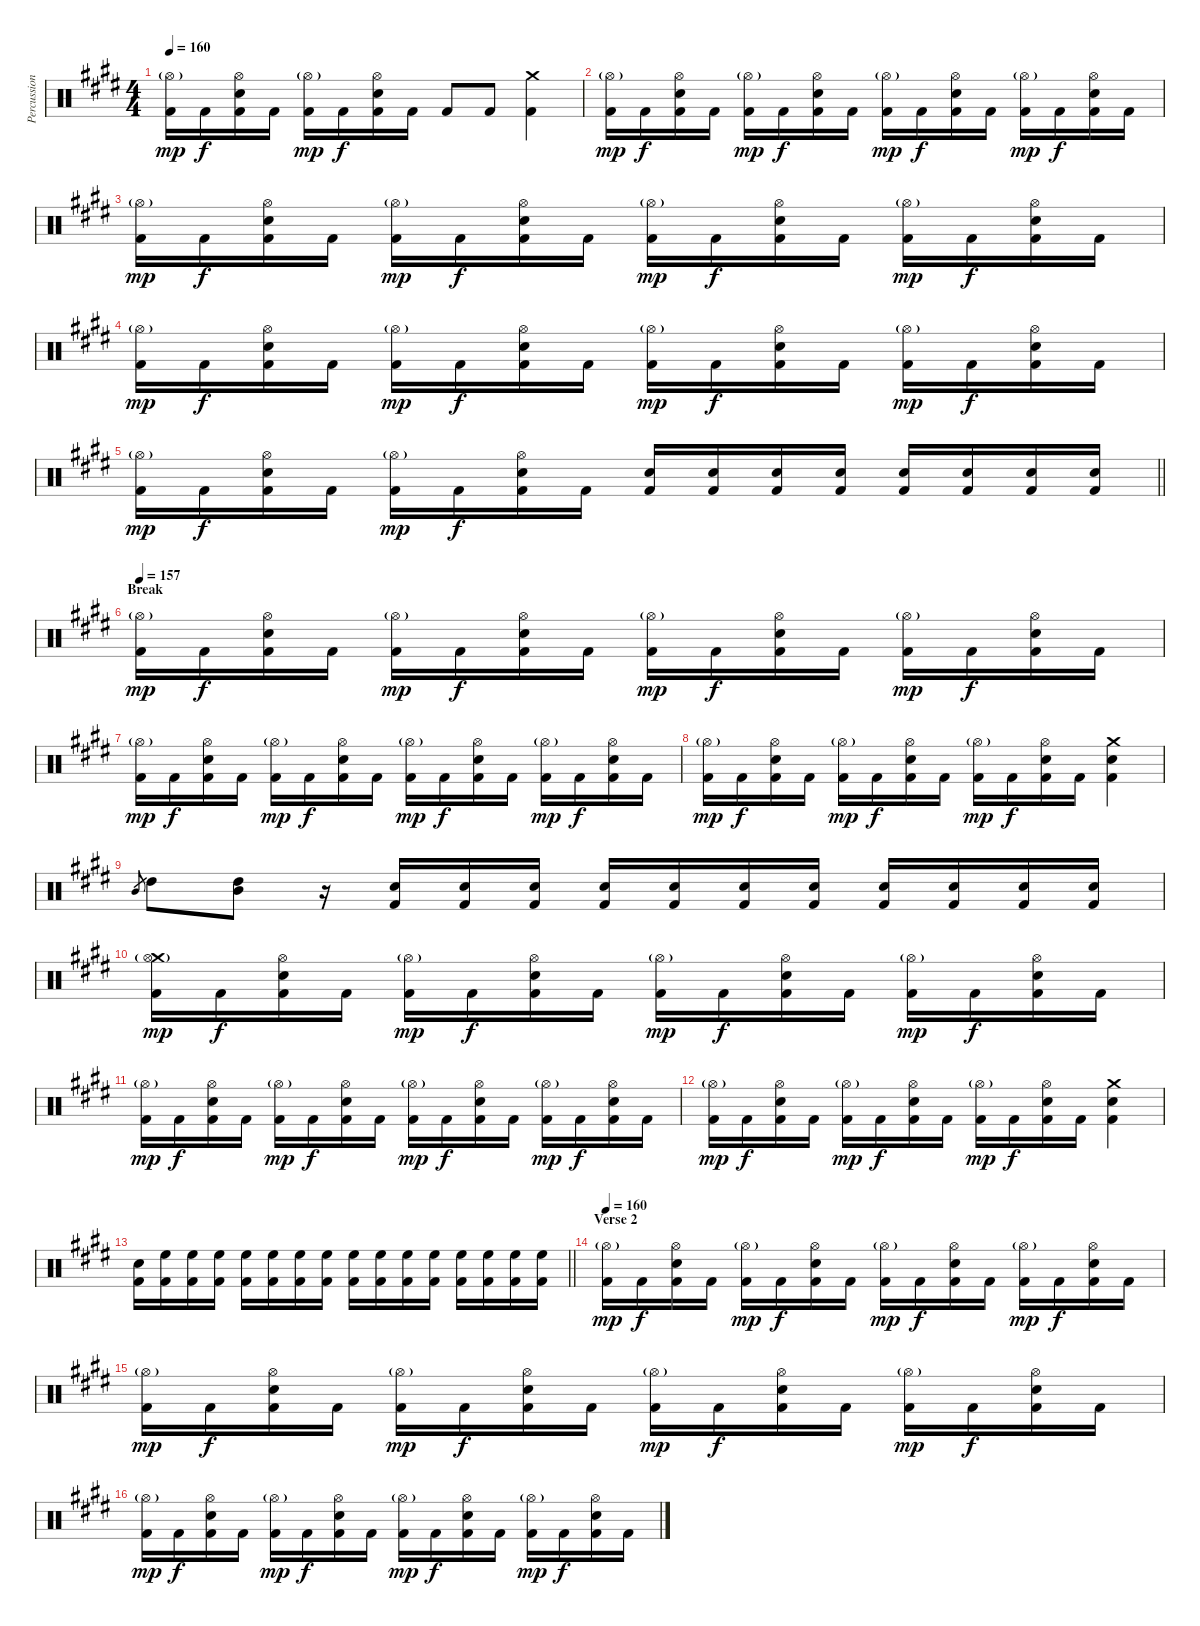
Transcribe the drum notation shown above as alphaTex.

\track ("Percussion (Thomen Stauch)" "Percussion") {instrument percussion}
\staff {score}
\articulation defaults
\ts (4 4)
\tempo 160
\clef neutral
\ks c#minor
("Hi-Hat (open)"{g} "Kick (hit) 2").16{dy mp} "Kick (hit) 2".16{dy f} ("Hi-Hat (open)" "Snare (hit) 2" "Kick (hit) 2").16 "Kick (hit) 2".16 ("Hi-Hat (open)"{g} "Kick (hit) 2").16{dy mp} "Kick (hit) 2".16{dy f} ("Hi-Hat (open)" "Snare (hit) 2" "Kick (hit) 2").16 "Kick (hit) 2".16 "Kick (hit) 2".8 "Kick (hit) 2".8 ("Crash medium (hit)" "Kick (hit) 2").4 |
("Hi-Hat (open)"{g} "Kick (hit) 2").16{dy mp} "Kick (hit) 2".16{dy f} ("Hi-Hat (open)" "Snare (hit) 2" "Kick (hit) 2").16 "Kick (hit) 2".16 ("Hi-Hat (open)"{g} "Kick (hit) 2").16{dy mp} "Kick (hit) 2".16{dy f} ("Hi-Hat (open)" "Snare (hit) 2" "Kick (hit) 2").16 "Kick (hit) 2".16 ("Hi-Hat (open)"{g} "Kick (hit) 2").16{dy mp} "Kick (hit) 2".16{dy f} ("Hi-Hat (open)" "Snare (hit) 2" "Kick (hit) 2").16 "Kick (hit) 2".16 ("Hi-Hat (open)"{g} "Kick (hit) 2").16{dy mp} "Kick (hit) 2".16{dy f} ("Hi-Hat (open)" "Snare (hit) 2" "Kick (hit) 2").16 "Kick (hit) 2".16 |
("Hi-Hat (open)"{g} "Kick (hit) 2").16{dy mp} "Kick (hit) 2".16{dy f} ("Hi-Hat (open)" "Snare (hit) 2" "Kick (hit) 2").16 "Kick (hit) 2".16 ("Hi-Hat (open)"{g} "Kick (hit) 2").16{dy mp} "Kick (hit) 2".16{dy f} ("Hi-Hat (open)" "Snare (hit) 2" "Kick (hit) 2").16 "Kick (hit) 2".16 ("Hi-Hat (open)"{g} "Kick (hit) 2").16{dy mp} "Kick (hit) 2".16{dy f} ("Hi-Hat (open)" "Snare (hit) 2" "Kick (hit) 2").16 "Kick (hit) 2".16 ("Hi-Hat (open)"{g} "Kick (hit) 2").16{dy mp} "Kick (hit) 2".16{dy f} ("Hi-Hat (open)" "Snare (hit) 2" "Kick (hit) 2").16 "Kick (hit) 2".16 |
("Hi-Hat (open)"{g} "Kick (hit) 2").16{dy mp} "Kick (hit) 2".16{dy f} ("Hi-Hat (open)" "Snare (hit) 2" "Kick (hit) 2").16 "Kick (hit) 2".16 ("Hi-Hat (open)"{g} "Kick (hit) 2").16{dy mp} "Kick (hit) 2".16{dy f} ("Hi-Hat (open)" "Snare (hit) 2" "Kick (hit) 2").16 "Kick (hit) 2".16 ("Hi-Hat (open)"{g} "Kick (hit) 2").16{dy mp} "Kick (hit) 2".16{dy f} ("Hi-Hat (open)" "Snare (hit) 2" "Kick (hit) 2").16 "Kick (hit) 2".16 ("Hi-Hat (open)"{g} "Kick (hit) 2").16{dy mp} "Kick (hit) 2".16{dy f} ("Hi-Hat (open)" "Snare (hit) 2" "Kick (hit) 2").16 "Kick (hit) 2".16 |
\barLineRight lightlight
("Hi-Hat (open)"{g} "Kick (hit) 2").16{dy mp} "Kick (hit) 2".16{dy f} ("Hi-Hat (open)" "Snare (hit) 2" "Kick (hit) 2").16 "Kick (hit) 2".16 ("Hi-Hat (open)"{g} "Kick (hit) 2").16{dy mp} "Kick (hit) 2".16{dy f} ("Hi-Hat (open)" "Snare (hit) 2" "Kick (hit) 2").16 "Kick (hit) 2".16 ("Snare (hit) 2" "Kick (hit) 2").16 ("Snare (hit) 2" "Kick (hit) 2").16 ("Snare (hit) 2" "Kick (hit) 2").16 ("Snare (hit) 2" "Kick (hit) 2").16 ("Snare (hit) 2" "Kick (hit) 2").16 ("Snare (hit) 2" "Kick (hit) 2").16 ("Snare (hit) 2" "Kick (hit) 2").16 ("Snare (hit) 2" "Kick (hit) 2").16 |
\section ("" "Break")
\tempo 157
("Hi-Hat (open)"{g} "Kick (hit) 2").16{dy mp} "Kick (hit) 2".16{dy f} ("Hi-Hat (open)" "Snare (hit) 2" "Kick (hit) 2").16 "Kick (hit) 2".16 ("Hi-Hat (open)"{g} "Kick (hit) 2").16{dy mp} "Kick (hit) 2".16{dy f} ("Hi-Hat (open)" "Snare (hit) 2" "Kick (hit) 2").16 "Kick (hit) 2".16 ("Hi-Hat (open)"{g} "Kick (hit) 2").16{dy mp} "Kick (hit) 2".16{dy f} ("Hi-Hat (open)" "Snare (hit) 2" "Kick (hit) 2").16 "Kick (hit) 2".16 ("Hi-Hat (open)"{g} "Kick (hit) 2").16{dy mp} "Kick (hit) 2".16{dy f} ("Hi-Hat (open)" "Snare (hit) 2" "Kick (hit) 2").16 "Kick (hit) 2".16 |
("Hi-Hat (open)"{g} "Kick (hit) 2").16{dy mp} "Kick (hit) 2".16{dy f} ("Hi-Hat (open)" "Snare (hit) 2" "Kick (hit) 2").16 "Kick (hit) 2".16 ("Hi-Hat (open)"{g} "Kick (hit) 2").16{dy mp} "Kick (hit) 2".16{dy f} ("Hi-Hat (open)" "Snare (hit) 2" "Kick (hit) 2").16 "Kick (hit) 2".16 ("Hi-Hat (open)"{g} "Kick (hit) 2").16{dy mp} "Kick (hit) 2".16{dy f} ("Hi-Hat (open)" "Snare (hit) 2" "Kick (hit) 2").16 "Kick (hit) 2".16 ("Hi-Hat (open)"{g} "Kick (hit) 2").16{dy mp} "Kick (hit) 2".16{dy f} ("Hi-Hat (open)" "Snare (hit) 2" "Kick (hit) 2").16 "Kick (hit) 2".16 |
("Hi-Hat (open)"{g} "Kick (hit) 2").16{dy mp} "Kick (hit) 2".16{dy f} ("Hi-Hat (open)" "Snare (hit) 2" "Kick (hit) 2").16 "Kick (hit) 2".16 ("Hi-Hat (open)"{g} "Kick (hit) 2").16{dy mp} "Kick (hit) 2".16{dy f} ("Hi-Hat (open)" "Snare (hit) 2" "Kick (hit) 2").16 "Kick (hit) 2".16 ("Hi-Hat (open)"{g} "Kick (hit) 2").16{dy mp} "Kick (hit) 2".16{dy f} ("Hi-Hat (open)" "Snare (hit) 2" "Kick (hit) 2").16 "Kick (hit) 2".16 ("Crash medium (hit)" "Snare (hit) 2" "Kick (hit) 2").4 |
"Mid Tom (hit)".8{gr} "High Tom (hit)".8 ("High Tom (hit)" "Mid Tom (hit)").8 r.16 ("Snare (hit) 2" "Kick (hit) 2").16 ("Snare (hit) 2" "Kick (hit) 2").16 ("Snare (hit) 2" "Kick (hit) 2").16 ("Snare (hit) 2" "Kick (hit) 2").16 ("Snare (hit) 2" "Kick (hit) 2").16 ("Snare (hit) 2" "Kick (hit) 2").16 ("Snare (hit) 2" "Kick (hit) 2").16 ("Snare (hit) 2" "Kick (hit) 2").16 ("Snare (hit) 2" "Kick (hit) 2").16 ("Snare (hit) 2" "Kick (hit) 2").16 ("Snare (hit) 2" "Kick (hit) 2").16 |
("Crash medium (hit)" "Hi-Hat (open)"{g} "Kick (hit) 2").16{dy mp} "Kick (hit) 2".16{dy f} ("Hi-Hat (open)" "Snare (hit) 2" "Kick (hit) 2").16 "Kick (hit) 2".16 ("Hi-Hat (open)"{g} "Kick (hit) 2").16{dy mp} "Kick (hit) 2".16{dy f} ("Hi-Hat (open)" "Snare (hit) 2" "Kick (hit) 2").16 "Kick (hit) 2".16 ("Hi-Hat (open)"{g} "Kick (hit) 2").16{dy mp} "Kick (hit) 2".16{dy f} ("Hi-Hat (open)" "Snare (hit) 2" "Kick (hit) 2").16 "Kick (hit) 2".16 ("Hi-Hat (open)"{g} "Kick (hit) 2").16{dy mp} "Kick (hit) 2".16{dy f} ("Hi-Hat (open)" "Snare (hit) 2" "Kick (hit) 2").16 "Kick (hit) 2".16 |
("Hi-Hat (open)"{g} "Kick (hit) 2").16{dy mp} "Kick (hit) 2".16{dy f} ("Hi-Hat (open)" "Snare (hit) 2" "Kick (hit) 2").16 "Kick (hit) 2".16 ("Hi-Hat (open)"{g} "Kick (hit) 2").16{dy mp} "Kick (hit) 2".16{dy f} ("Hi-Hat (open)" "Snare (hit) 2" "Kick (hit) 2").16 "Kick (hit) 2".16 ("Hi-Hat (open)"{g} "Kick (hit) 2").16{dy mp} "Kick (hit) 2".16{dy f} ("Hi-Hat (open)" "Snare (hit) 2" "Kick (hit) 2").16 "Kick (hit) 2".16 ("Hi-Hat (open)"{g} "Kick (hit) 2").16{dy mp} "Kick (hit) 2".16{dy f} ("Hi-Hat (open)" "Snare (hit) 2" "Kick (hit) 2").16 "Kick (hit) 2".16 |
("Hi-Hat (open)"{g} "Kick (hit) 2").16{dy mp} "Kick (hit) 2".16{dy f} ("Hi-Hat (open)" "Snare (hit) 2" "Kick (hit) 2").16 "Kick (hit) 2".16 ("Hi-Hat (open)"{g} "Kick (hit) 2").16{dy mp} "Kick (hit) 2".16{dy f} ("Hi-Hat (open)" "Snare (hit) 2" "Kick (hit) 2").16 "Kick (hit) 2".16 ("Hi-Hat (open)"{g} "Kick (hit) 2").16{dy mp} "Kick (hit) 2".16{dy f} ("Hi-Hat (open)" "Snare (hit) 2" "Kick (hit) 2").16 "Kick (hit) 2".16 ("Crash medium (hit)" "Snare (hit) 2" "Kick (hit) 2").4 |
\barLineRight lightlight
("Snare (hit) 2" "Kick (hit) 2").16 ("High Floor Tom (hit)" "Kick (hit) 2").16 ("High Floor Tom (hit)" "Kick (hit) 2").16 ("High Floor Tom (hit)" "Kick (hit) 2").16 ("High Floor Tom (hit)" "Kick (hit) 2").16 ("High Floor Tom (hit)" "Kick (hit) 2").16 ("High Floor Tom (hit)" "Kick (hit) 2").16 ("High Floor Tom (hit)" "Kick (hit) 2").16 ("High Floor Tom (hit)" "Kick (hit) 2").16 ("High Floor Tom (hit)" "Kick (hit) 2").16 ("High Floor Tom (hit)" "Kick (hit) 2").16 ("High Floor Tom (hit)" "Kick (hit) 2").16 ("High Floor Tom (hit)" "Kick (hit) 2").16 ("High Floor Tom (hit)" "Kick (hit) 2").16 ("High Floor Tom (hit)" "Kick (hit) 2").16 ("High Floor Tom (hit)" "Kick (hit) 2").16 |
\section ("" "Verse 2")
\tempo 160
("Hi-Hat (open)"{g} "Kick (hit) 2").16{dy mp} "Kick (hit) 2".16{dy f} ("Hi-Hat (open)" "Snare (hit) 2" "Kick (hit) 2").16 "Kick (hit) 2".16 ("Hi-Hat (open)"{g} "Kick (hit) 2").16{dy mp} "Kick (hit) 2".16{dy f} ("Hi-Hat (open)" "Snare (hit) 2" "Kick (hit) 2").16 "Kick (hit) 2".16 ("Hi-Hat (open)"{g} "Kick (hit) 2").16{dy mp} "Kick (hit) 2".16{dy f} ("Hi-Hat (open)" "Snare (hit) 2" "Kick (hit) 2").16 "Kick (hit) 2".16 ("Hi-Hat (open)"{g} "Kick (hit) 2").16{dy mp} "Kick (hit) 2".16{dy f} ("Hi-Hat (open)" "Snare (hit) 2" "Kick (hit) 2").16 "Kick (hit) 2".16 |
("Hi-Hat (open)"{g} "Kick (hit) 2").16{dy mp} "Kick (hit) 2".16{dy f} ("Hi-Hat (open)" "Snare (hit) 2" "Kick (hit) 2").16 "Kick (hit) 2".16 ("Hi-Hat (open)"{g} "Kick (hit) 2").16{dy mp} "Kick (hit) 2".16{dy f} ("Hi-Hat (open)" "Snare (hit) 2" "Kick (hit) 2").16 "Kick (hit) 2".16 ("Hi-Hat (open)"{g} "Kick (hit) 2").16{dy mp} "Kick (hit) 2".16{dy f} ("Hi-Hat (open)" "Snare (hit) 2" "Kick (hit) 2").16 "Kick (hit) 2".16 ("Hi-Hat (open)"{g} "Kick (hit) 2").16{dy mp} "Kick (hit) 2".16{dy f} ("Hi-Hat (open)" "Snare (hit) 2" "Kick (hit) 2").16 "Kick (hit) 2".16 |
("Hi-Hat (open)"{g} "Kick (hit) 2").16{dy mp} "Kick (hit) 2".16{dy f} ("Hi-Hat (open)" "Snare (hit) 2" "Kick (hit) 2").16 "Kick (hit) 2".16 ("Hi-Hat (open)"{g} "Kick (hit) 2").16{dy mp} "Kick (hit) 2".16{dy f} ("Hi-Hat (open)" "Snare (hit) 2" "Kick (hit) 2").16 "Kick (hit) 2".16 ("Hi-Hat (open)"{g} "Kick (hit) 2").16{dy mp} "Kick (hit) 2".16{dy f} ("Hi-Hat (open)" "Snare (hit) 2" "Kick (hit) 2").16 "Kick (hit) 2".16 ("Hi-Hat (open)"{g} "Kick (hit) 2").16{dy mp} "Kick (hit) 2".16{dy f} ("Hi-Hat (open)" "Snare (hit) 2" "Kick (hit) 2").16 "Kick (hit) 2".16
